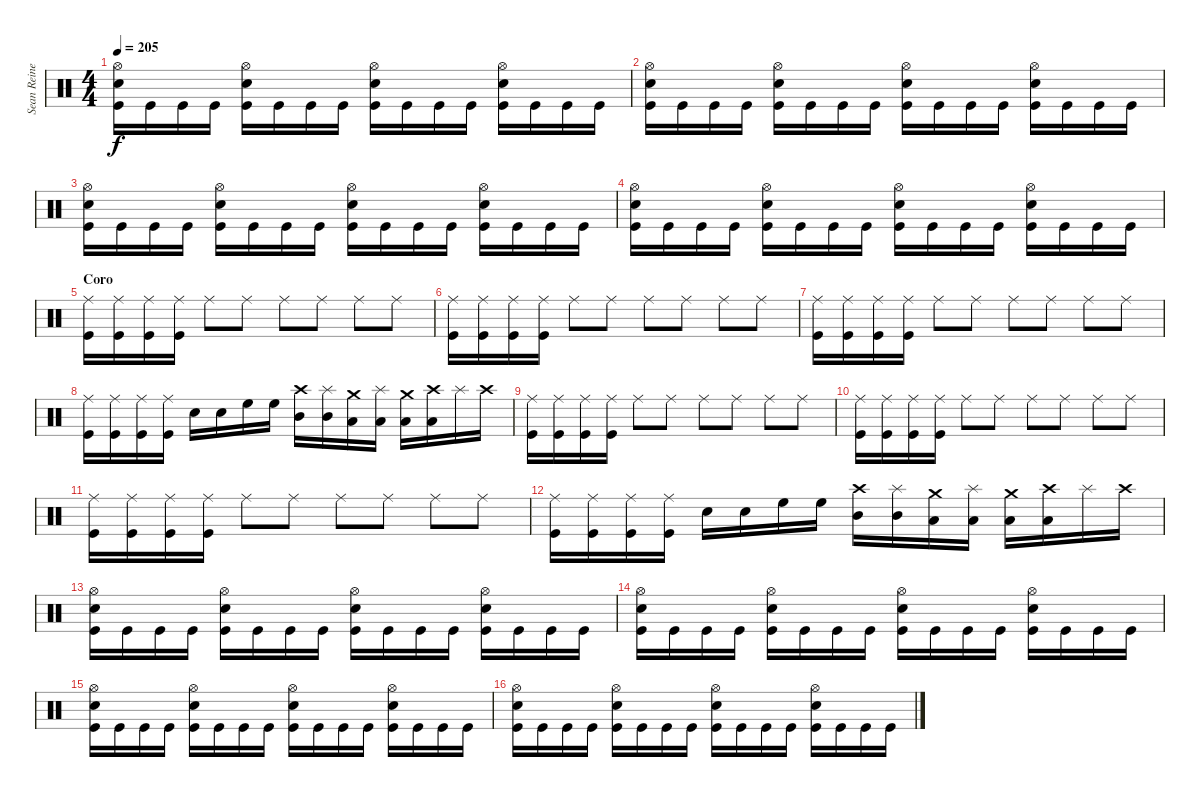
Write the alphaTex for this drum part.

\track ("Sean Reinert" "Sean Reine") {instrument percussion}
\staff {score}
\articulation defaults
\ts (4 4)
\tempo 205
\clef neutral
\ks c
("Hi-Hat (open)" "Snare (hit) 2" "Kick (hit)").16{dy f} "Kick (hit)".16 "Kick (hit)".16 "Kick (hit)".16 ("Hi-Hat (open)" "Snare (hit) 2" "Kick (hit)").16 "Kick (hit)".16 "Kick (hit)".16 "Kick (hit)".16 ("Hi-Hat (open)" "Snare (hit) 2" "Kick (hit)").16 "Kick (hit)".16 "Kick (hit)".16 "Kick (hit)".16 ("Hi-Hat (open)" "Snare (hit) 2" "Kick (hit)").16 "Kick (hit)".16 "Kick (hit)".16 "Kick (hit)".16 |
("Hi-Hat (open)" "Snare (hit) 2" "Kick (hit)").16 "Kick (hit)".16 "Kick (hit)".16 "Kick (hit)".16 ("Hi-Hat (open)" "Snare (hit) 2" "Kick (hit)").16 "Kick (hit)".16 "Kick (hit)".16 "Kick (hit)".16 ("Hi-Hat (open)" "Snare (hit) 2" "Kick (hit)").16 "Kick (hit)".16 "Kick (hit)".16 "Kick (hit)".16 ("Hi-Hat (open)" "Snare (hit) 2" "Kick (hit)").16 "Kick (hit)".16 "Kick (hit)".16 "Kick (hit)".16 |
("Hi-Hat (open)" "Snare (hit) 2" "Kick (hit)").16 "Kick (hit)".16 "Kick (hit)".16 "Kick (hit)".16 ("Hi-Hat (open)" "Snare (hit) 2" "Kick (hit)").16 "Kick (hit)".16 "Kick (hit)".16 "Kick (hit)".16 ("Hi-Hat (open)" "Snare (hit) 2" "Kick (hit)").16 "Kick (hit)".16 "Kick (hit)".16 "Kick (hit)".16 ("Hi-Hat (open)" "Snare (hit) 2" "Kick (hit)").16 "Kick (hit)".16 "Kick (hit)".16 "Kick (hit)".16 |
("Hi-Hat (open)" "Snare (hit) 2" "Kick (hit)").16 "Kick (hit)".16 "Kick (hit)".16 "Kick (hit)".16 ("Hi-Hat (open)" "Snare (hit) 2" "Kick (hit)").16 "Kick (hit)".16 "Kick (hit)".16 "Kick (hit)".16 ("Hi-Hat (open)" "Snare (hit) 2" "Kick (hit)").16 "Kick (hit)".16 "Kick (hit)".16 "Kick (hit)".16 ("Hi-Hat (open)" "Snare (hit) 2" "Kick (hit)").16 "Kick (hit)".16 "Kick (hit)".16 "Kick (hit)".16 |
\section ("" "Coro")
("Ride (middle)" "Kick (hit)").16 ("Ride (middle)" "Kick (hit)").16 ("Ride (middle)" "Kick (hit)").16 ("Ride (middle)" "Kick (hit)").16 "Ride (middle)".8 "Ride (middle)".8 "Ride (middle)".8 "Ride (middle)".8 "Ride (middle)".8 "Ride (middle)".8 |
("Ride (middle)" "Kick (hit)").16 ("Ride (middle)" "Kick (hit)").16 ("Ride (middle)" "Kick (hit)").16 ("Ride (middle)" "Kick (hit)").16 "Ride (middle)".8 "Ride (middle)".8 "Ride (middle)".8 "Ride (middle)".8 "Ride (middle)".8 "Ride (middle)".8 |
("Ride (middle)" "Kick (hit)").16 ("Ride (middle)" "Kick (hit)").16 ("Ride (middle)" "Kick (hit)").16 ("Ride (middle)" "Kick (hit)").16 "Ride (middle)".8 "Ride (middle)".8 "Ride (middle)".8 "Ride (middle)".8 "Ride (middle)".8 "Ride (middle)".8 |
("Ride (middle)" "Kick (hit)").16 ("Ride (middle)" "Kick (hit)").16 ("Ride (middle)" "Kick (hit)").16 ("Ride (middle)" "Kick (hit)").16 "Snare (hit) 2".16 "Snare (hit) 2".16 "High Floor Tom (hit)".16 "High Floor Tom (hit)".16 ("Crash high (hit)" "Mid Tom (hit)").16 ("Splash (hit)" "Mid Tom (hit)").16 ("Crash medium (hit)" "Low Tom (hit)").16 ("Splash (hit)" "Low Tom (hit)").16 ("Crash medium (hit)" "Low Floor Tom (hit)").16 ("Crash high (hit)" "Low Floor Tom (hit)").16 "Splash (hit)".16 "Crash high (hit)".16 |
("Ride (middle)" "Kick (hit)").16 ("Ride (middle)" "Kick (hit)").16 ("Ride (middle)" "Kick (hit)").16 ("Ride (middle)" "Kick (hit)").16 "Ride (middle)".8 "Ride (middle)".8 "Ride (middle)".8 "Ride (middle)".8 "Ride (middle)".8 "Ride (middle)".8 |
("Ride (middle)" "Kick (hit)").16 ("Ride (middle)" "Kick (hit)").16 ("Ride (middle)" "Kick (hit)").16 ("Ride (middle)" "Kick (hit)").16 "Ride (middle)".8 "Ride (middle)".8 "Ride (middle)".8 "Ride (middle)".8 "Ride (middle)".8 "Ride (middle)".8 |
("Ride (middle)" "Kick (hit)").16 ("Ride (middle)" "Kick (hit)").16 ("Ride (middle)" "Kick (hit)").16 ("Ride (middle)" "Kick (hit)").16 "Ride (middle)".8 "Ride (middle)".8 "Ride (middle)".8 "Ride (middle)".8 "Ride (middle)".8 "Ride (middle)".8 |
("Ride (middle)" "Kick (hit)").16 ("Ride (middle)" "Kick (hit)").16 ("Ride (middle)" "Kick (hit)").16 ("Ride (middle)" "Kick (hit)").16 "Snare (hit) 2".16 "Snare (hit) 2".16 "High Floor Tom (hit)".16 "High Floor Tom (hit)".16 ("Crash high (hit)" "Mid Tom (hit)").16 ("Splash (hit)" "Mid Tom (hit)").16 ("Crash medium (hit)" "Low Tom (hit)").16 ("Splash (hit)" "Low Tom (hit)").16 ("Crash medium (hit)" "Low Floor Tom (hit)").16 ("Crash high (hit)" "Low Floor Tom (hit)").16 "Splash (hit)".16 "Crash high (hit)".16 |
("Hi-Hat (open)" "Snare (hit) 2" "Kick (hit)").16 "Kick (hit)".16 "Kick (hit)".16 "Kick (hit)".16 ("Hi-Hat (open)" "Snare (hit) 2" "Kick (hit)").16 "Kick (hit)".16 "Kick (hit)".16 "Kick (hit)".16 ("Hi-Hat (open)" "Snare (hit) 2" "Kick (hit)").16 "Kick (hit)".16 "Kick (hit)".16 "Kick (hit)".16 ("Hi-Hat (open)" "Snare (hit) 2" "Kick (hit)").16 "Kick (hit)".16 "Kick (hit)".16 "Kick (hit)".16 |
("Hi-Hat (open)" "Snare (hit) 2" "Kick (hit)").16 "Kick (hit)".16 "Kick (hit)".16 "Kick (hit)".16 ("Hi-Hat (open)" "Snare (hit) 2" "Kick (hit)").16 "Kick (hit)".16 "Kick (hit)".16 "Kick (hit)".16 ("Hi-Hat (open)" "Snare (hit) 2" "Kick (hit)").16 "Kick (hit)".16 "Kick (hit)".16 "Kick (hit)".16 ("Hi-Hat (open)" "Snare (hit) 2" "Kick (hit)").16 "Kick (hit)".16 "Kick (hit)".16 "Kick (hit)".16 |
("Hi-Hat (open)" "Snare (hit) 2" "Kick (hit)").16 "Kick (hit)".16 "Kick (hit)".16 "Kick (hit)".16 ("Hi-Hat (open)" "Snare (hit) 2" "Kick (hit)").16 "Kick (hit)".16 "Kick (hit)".16 "Kick (hit)".16 ("Hi-Hat (open)" "Snare (hit) 2" "Kick (hit)").16 "Kick (hit)".16 "Kick (hit)".16 "Kick (hit)".16 ("Hi-Hat (open)" "Snare (hit) 2" "Kick (hit)").16 "Kick (hit)".16 "Kick (hit)".16 "Kick (hit)".16 |
("Hi-Hat (open)" "Snare (hit) 2" "Kick (hit)").16 "Kick (hit)".16 "Kick (hit)".16 "Kick (hit)".16 ("Hi-Hat (open)" "Snare (hit) 2" "Kick (hit)").16 "Kick (hit)".16 "Kick (hit)".16 "Kick (hit)".16 ("Hi-Hat (open)" "Snare (hit) 2" "Kick (hit)").16 "Kick (hit)".16 "Kick (hit)".16 "Kick (hit)".16 ("Hi-Hat (open)" "Snare (hit) 2" "Kick (hit)").16 "Kick (hit)".16 "Kick (hit)".16 "Kick (hit)".16
